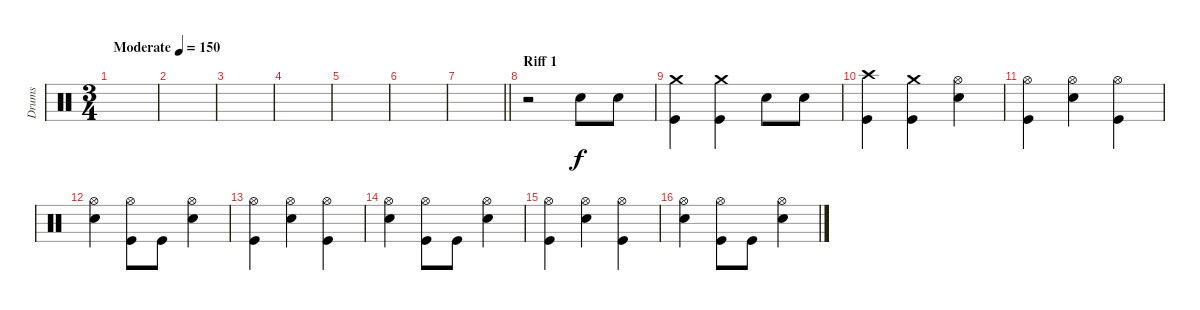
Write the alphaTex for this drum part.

\track ("Drums" "Drums") {instrument percussion}
\staff {score}
\articulation defaults
\ts (3 4)
\tempo (150 "Moderate")
\clef neutral
\ks c
|
|
|
|
|
|
\barLineRight lightlight
|
\section ("" "Riff 1")
r.2 "Electric Snare (hit)".8 "Electric Snare (hit)".8 |
("Crash medium (hit)" "Kick (hit)").4 ("Crash medium (hit)" "Kick (hit)").4 "Electric Snare (hit)".8 "Electric Snare (hit)".8 |
("Crash high (hit)" "Kick (hit)").4 ("Crash medium (hit)" "Kick (hit)").4 ("Hi-Hat (open)" "Electric Snare (hit)").4 |
("Hi-Hat (open)" "Kick (hit)").4 ("Hi-Hat (open)" "Electric Snare (hit)").4 ("Hi-Hat (open)" "Kick (hit)").4 |
("Hi-Hat (open)" "Electric Snare (hit)").4 ("Hi-Hat (open)" "Kick (hit)").8 "Kick (hit)".8 ("Hi-Hat (open)" "Electric Snare (hit)").4 |
("Hi-Hat (open)" "Kick (hit)").4 ("Hi-Hat (open)" "Electric Snare (hit)").4 ("Hi-Hat (open)" "Kick (hit)").4 |
("Hi-Hat (open)" "Electric Snare (hit)").4 ("Hi-Hat (open)" "Kick (hit)").8 "Kick (hit)".8 ("Hi-Hat (open)" "Electric Snare (hit)").4 |
("Hi-Hat (open)" "Kick (hit)").4 ("Hi-Hat (open)" "Electric Snare (hit)").4 ("Hi-Hat (open)" "Kick (hit)").4 |
("Hi-Hat (open)" "Electric Snare (hit)").4 ("Hi-Hat (open)" "Kick (hit)").8 "Kick (hit)".8 ("Hi-Hat (open)" "Electric Snare (hit)").4
